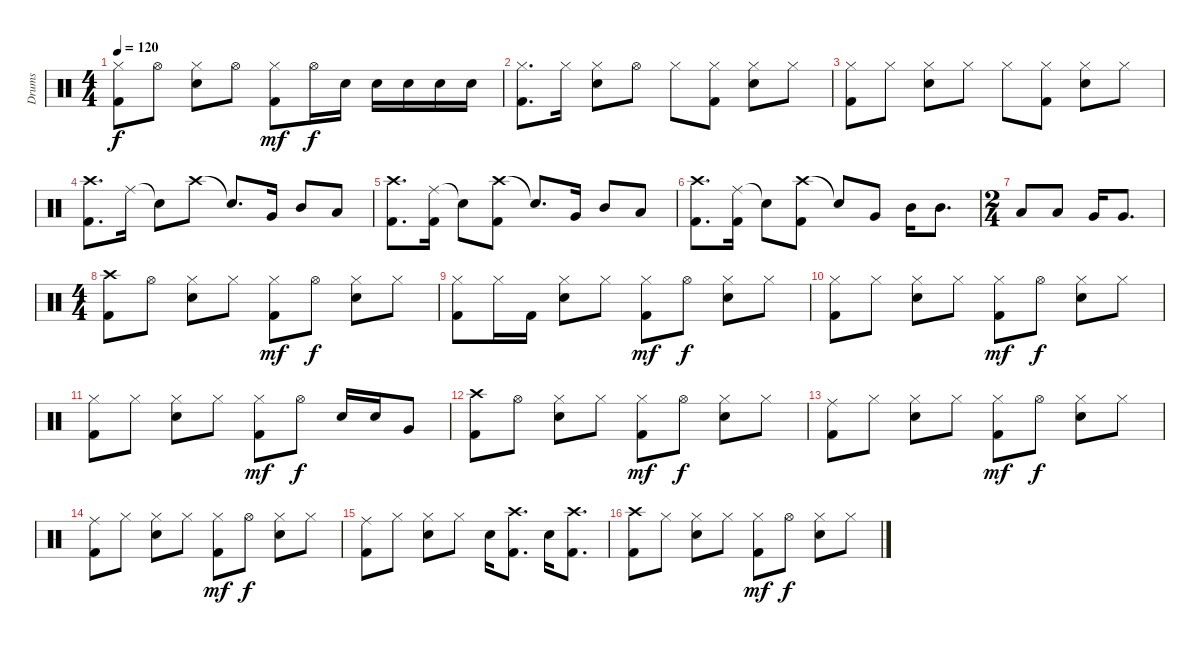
\track ("Drums" "Drums") {instrument percussion}
\staff {score}
\articulation defaults
\ts (4 4)
\tempo 120
\clef neutral
\ks c
("Hi-Hat (closed)" "Kick (hit) 2").8{dy f} "Hi-Hat (open)".8 ("Hi-Hat (closed)" "Snare (hit) 2").8 "Hi-Hat (open)".8 ("Hi-Hat (closed)" "Kick (hit) 2").8{dy mf} "Hi-Hat (open)".16{dy f} "Snare (hit) 2".16 "Snare (hit) 2".16 "Snare (hit) 2".16 "Snare (hit) 2".16 "Snare (hit) 2".16 |
("Hi-Hat (closed)" "Kick (hit) 2").8{d} "Hi-Hat (closed)".16 ("Hi-Hat (closed)" "Snare (hit) 2").8 "Hi-Hat (open)".8 "Hi-Hat (closed)".8 ("Hi-Hat (closed)" "Kick (hit) 2").8 ("Hi-Hat (closed)" "Snare (hit) 2").8 "Hi-Hat (closed)".8 |
("Hi-Hat (closed)" "Kick (hit) 2").8 "Hi-Hat (closed)".8 ("Hi-Hat (closed)" "Snare (hit) 2").8 "Hi-Hat (closed)".8 "Hi-Hat (closed)".8 ("Hi-Hat (closed)" "Kick (hit) 2").8 ("Hi-Hat (closed)" "Snare (hit) 2").8 "Hi-Hat (closed)".8 |
("Crash high (hit)" "Kick (hit) 2").8{d} "Ride (middle)".16 "Snare (hit)"{t}.8 "Crash high (hit)".8 "Snare (hit)"{t}.8{d} "Very Low Tom (hit)".16 "Mid Tom (hit)".8 "Low Tom (hit)".8 |
("Crash high (hit)" "Kick (hit) 2").8{d} ("Ride (middle)" "Kick (hit) 2").16 "Snare (hit)"{t}.8 ("Crash high (hit)" "Kick (hit) 2").8 "Snare (hit)"{t}.8{d} "Very Low Tom (hit)".16 "Mid Tom (hit)".8 "Low Tom (hit)".8 |
("Crash high (hit)" "Kick (hit) 2").8{d} ("Ride (middle)" "Kick (hit) 2").16 "Snare (hit)"{t}.8 ("Crash high (hit)" "Kick (hit) 2").8 "Snare (hit)"{t}.8 "Very Low Tom (hit)".8 "Mid Tom (hit)".16 "Mid Tom (hit)".8{d} |
\ts (2 4)
"Low Tom (hit)".8 "Low Tom (hit)".8 "Very Low Tom (hit)".16 "Very Low Tom (hit)".8{d} |
\ts (4 4)
("Crash high (hit)" "Kick (hit) 2").8 "Hi-Hat (open)".8 ("Hi-Hat (closed)" "Snare (hit) 2").8 "Hi-Hat (closed)".8 ("Hi-Hat (closed)" "Kick (hit) 2").8{dy mf} "Hi-Hat (open)".8{dy f} ("Hi-Hat (closed)" "Snare (hit) 2").8 "Hi-Hat (closed)".8 |
("Hi-Hat (closed)" "Kick (hit) 2").8 "Hi-Hat (closed)".16 "Kick (hit) 2".16 ("Hi-Hat (closed)" "Snare (hit) 2").8 "Hi-Hat (closed)".8 ("Hi-Hat (closed)" "Kick (hit) 2").8{dy mf} "Hi-Hat (open)".8{dy f} ("Hi-Hat (closed)" "Snare (hit) 2").8 "Hi-Hat (closed)".8 |
("Hi-Hat (closed)" "Kick (hit) 2").8 "Hi-Hat (closed)".8 ("Hi-Hat (closed)" "Snare (hit) 2").8 "Hi-Hat (closed)".8 ("Hi-Hat (closed)" "Kick (hit) 2").8{dy mf} "Hi-Hat (open)".8{dy f} ("Hi-Hat (closed)" "Snare (hit) 2").8 "Hi-Hat (closed)".8 |
("Hi-Hat (closed)" "Kick (hit) 2").8 "Hi-Hat (closed)".8 ("Hi-Hat (closed)" "Snare (hit) 2").8 "Hi-Hat (closed)".8 ("Hi-Hat (closed)" "Kick (hit) 2").8{dy mf} "Hi-Hat (open)".8{dy f} "Snare (hit) 2".16 "Snare (hit) 2".16 "Very Low Tom (hit)".8 |
("Crash high (hit)" "Kick (hit) 2").8 "Hi-Hat (open)".8 ("Hi-Hat (closed)" "Snare (hit) 2").8 "Hi-Hat (closed)".8 ("Hi-Hat (closed)" "Kick (hit) 2").8{dy mf} "Hi-Hat (open)".8{dy f} ("Hi-Hat (closed)" "Snare (hit) 2").8 "Hi-Hat (closed)".8 |
("Ride (middle)" "Kick (hit) 2").8 "Hi-Hat (closed)".8 ("Hi-Hat (closed)" "Snare (hit) 2").8 "Hi-Hat (closed)".8 ("Hi-Hat (closed)" "Kick (hit) 2").8{dy mf} "Hi-Hat (open)".8{dy f} ("Hi-Hat (closed)" "Snare (hit) 2").8 "Hi-Hat (closed)".8 |
("Ride (middle)" "Kick (hit) 2").8 "Hi-Hat (closed)".8 ("Hi-Hat (closed)" "Snare (hit) 2").8 "Hi-Hat (closed)".8 ("Hi-Hat (closed)" "Kick (hit) 2").8{dy mf} "Hi-Hat (open)".8{dy f} ("Hi-Hat (closed)" "Snare (hit) 2").8 "Hi-Hat (closed)".8 |
("Ride (middle)" "Kick (hit) 2").8 "Hi-Hat (closed)".8 ("Hi-Hat (closed)" "Snare (hit) 2").8 "Hi-Hat (closed)".8 "Snare (hit) 2".16 ("Crash high (hit)" "Kick (hit) 2").8{d} "Snare (hit) 2".16 ("Crash high (hit)" "Kick (hit) 2").8{d} |
("Crash high (hit)" "Kick (hit) 2").8 "Hi-Hat (closed)".8 ("Hi-Hat (closed)" "Snare (hit) 2").8 "Hi-Hat (closed)".8 ("Hi-Hat (closed)" "Kick (hit) 2").8{dy mf} "Hi-Hat (open)".8{dy f} ("Hi-Hat (closed)" "Snare (hit) 2").8 "Hi-Hat (closed)".8
